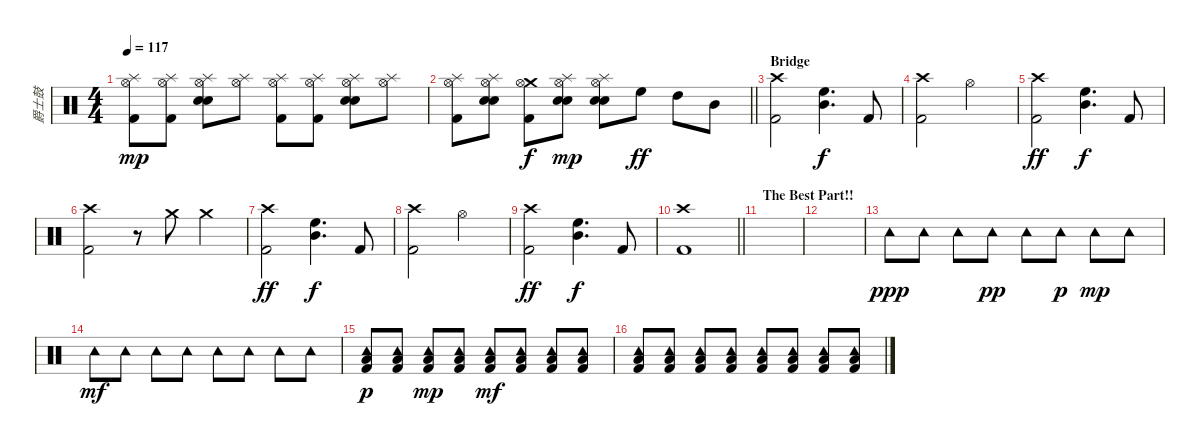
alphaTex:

\track ("爵士鼓" "爵士鼓") {instrument percussion}
\staff {score}
\articulation defaults
\ts (4 4)
\tempo 117
\clef neutral
\ks c
("Splash (hit)" "Hi-Hat (open)" "Kick (hit) 2").8{dy mp} ("Splash (hit)" "Hi-Hat (open)" "Kick (hit) 2").8 ("Splash (hit)" "Hi-Hat (open)" "Electric Snare (hit)" "Snare (hit) 2").8 ("Splash (hit)" "Hi-Hat (open)").8 ("Splash (hit)" "Hi-Hat (open)" "Kick (hit) 2").8 ("Splash (hit)" "Hi-Hat (open)" "Kick (hit) 2").8 ("Splash (hit)" "Hi-Hat (open)" "Electric Snare (hit)" "Snare (hit) 2").8 ("Splash (hit)" "Hi-Hat (open)").8 |
\barLineRight lightlight
("Splash (hit)" "Hi-Hat (open)" "Kick (hit) 2").8 ("Splash (hit)" "Hi-Hat (open)" "Electric Snare (hit)" "Snare (hit) 2").8 ("Crash medium (hit)" "Hi-Hat (open)" "Kick (hit) 2").8{dy f} ("Splash (hit)" "Hi-Hat (open)" "Electric Snare (hit)" "Snare (hit) 2").8{dy mp} ("Splash (hit)" "Hi-Hat (open)" "Electric Snare (hit)" "Snare (hit) 2").8 "High Floor Tom (hit)".8{dy ff} "High Tom (hit)".8 "Mid Tom (hit)".8 |
\section ("" "Bridge")
("Crash high (hit)" "Kick (hit) 2").2 ("Mid Tom (hit)" "High Floor Tom (hit)").4{d dy f} "Kick (hit) 2".8 |
("Crash high (hit)" "Kick (hit) 2").2 "Hi-Hat (open)".2 |
("Crash high (hit)" "Kick (hit) 2").2{dy ff} ("Mid Tom (hit)" "High Floor Tom (hit)").4{d dy f} "Kick (hit) 2".8 |
("Crash high (hit)" "Kick (hit) 2").2 r.8 "Crash medium (hit)".8 "Crash medium (hit)".4 |
("Crash high (hit)" "Kick (hit) 2").2{dy ff} ("Mid Tom (hit)" "High Floor Tom (hit)").4{d dy f} "Kick (hit) 2".8 |
("Crash high (hit)" "Kick (hit) 2").2 "Hi-Hat (open)".2 |
("Crash high (hit)" "Kick (hit) 2").2{dy ff} ("Mid Tom (hit)" "High Floor Tom (hit)").4{d dy f} "Kick (hit) 2".8 |
\barLineRight lightlight
("Crash high (hit)" "Kick (hit) 2").1 |
\section ("" "The Best Part!!")
|
|
"Tambourine (hit)".8{dy ppp} "Tambourine (hit)".8 "Tambourine (hit)".8 "Tambourine (hit)".8{dy pp} "Tambourine (hit)".8 "Tambourine (hit)".8{dy p} "Tambourine (hit)".8{dy mp} "Tambourine (hit)".8 |
"Tambourine (hit)".8{dy mf} "Tambourine (hit)".8 "Tambourine (hit)".8 "Tambourine (hit)".8 "Tambourine (hit)".8 "Tambourine (hit)".8 "Tambourine (hit)".8 "Tambourine (hit)".8 |
("Tambourine (hit)" "Low Tom (hit)" "Kick (hit) 2").8{dy p} ("Tambourine (hit)" "Low Tom (hit)" "Kick (hit) 2").8 ("Tambourine (hit)" "Low Tom (hit)" "Kick (hit) 2").8{dy mp} ("Tambourine (hit)" "Low Tom (hit)" "Kick (hit) 2").8 ("Tambourine (hit)" "Low Tom (hit)" "Kick (hit) 2").8{dy mf} ("Tambourine (hit)" "Low Tom (hit)" "Kick (hit) 2").8 ("Tambourine (hit)" "Low Tom (hit)" "Kick (hit) 2").8 ("Tambourine (hit)" "Low Tom (hit)" "Kick (hit) 2").8 |
("Tambourine (hit)" "Low Tom (hit)" "Kick (hit) 2").8 ("Tambourine (hit)" "Low Tom (hit)" "Kick (hit) 2").8 ("Tambourine (hit)" "Low Tom (hit)" "Kick (hit) 2").8 ("Tambourine (hit)" "Low Tom (hit)" "Kick (hit) 2").8 ("Tambourine (hit)" "Low Tom (hit)" "Kick (hit) 2").8 ("Tambourine (hit)" "Low Tom (hit)" "Kick (hit) 2").8 ("Tambourine (hit)" "Low Tom (hit)" "Kick (hit) 2").8 ("Tambourine (hit)" "Low Tom (hit)" "Kick (hit) 2").8
